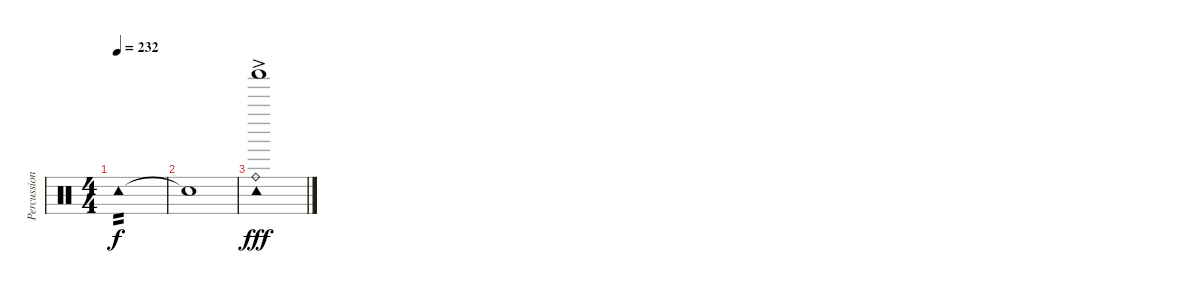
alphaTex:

\track ("Percussion" "Percussion") {instrument percussion}
\staff {score}
\articulation defaults
\ts (4 4)
\tempo 232
\clef neutral
\ks c "Tambourine (hit)".1{tp 2 dy f}
|
"Snare (hit)"{t}.1 |
("Ride (bell)"{ac} "Tambourine (hit)"{ac} "Shaker (hit)"{ac}).1{dy fff}
